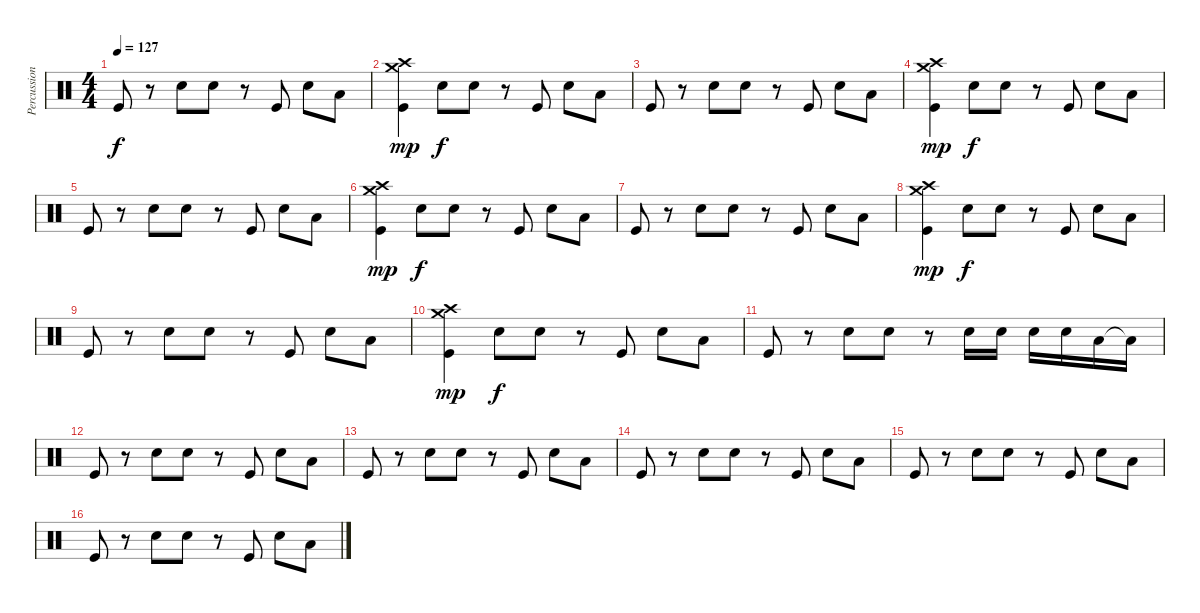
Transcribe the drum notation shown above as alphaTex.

\track ("Percussion" "Percussion") {instrument percussion}
\staff {score}
\articulation defaults
\ts (4 4)
\tempo 127
\clef neutral
\ks c "Kick (hit)".8{dy f}
r.8 "Snare (hit) 2".8 "Snare (hit) 2".8 r.8 "Kick (hit)".8 "Snare (hit) 2".8 "Low Floor Tom (hit)".8 |
("Crash medium (hit)" "Crash high (hit)" "Kick (hit)").4{dy mp} "Snare (hit) 2".8{dy f} "Snare (hit) 2".8 r.8 "Kick (hit)".8 "Snare (hit) 2".8 "Low Floor Tom (hit)".8 |
"Kick (hit)".8 r.8 "Snare (hit) 2".8 "Snare (hit) 2".8 r.8 "Kick (hit)".8 "Snare (hit) 2".8 "Low Floor Tom (hit)".8 |
("Crash medium (hit)" "Crash high (hit)" "Kick (hit)").4{dy mp} "Snare (hit) 2".8{dy f} "Snare (hit) 2".8 r.8 "Kick (hit)".8 "Snare (hit) 2".8 "Low Floor Tom (hit)".8 |
"Kick (hit)".8 r.8 "Snare (hit) 2".8 "Snare (hit) 2".8 r.8 "Kick (hit)".8 "Snare (hit) 2".8 "Low Floor Tom (hit)".8 |
("Crash medium (hit)" "Crash high (hit)" "Kick (hit)").4{dy mp} "Snare (hit) 2".8{dy f} "Snare (hit) 2".8 r.8 "Kick (hit)".8 "Snare (hit) 2".8 "Low Floor Tom (hit)".8 |
"Kick (hit)".8 r.8 "Snare (hit) 2".8 "Snare (hit) 2".8 r.8 "Kick (hit)".8 "Snare (hit) 2".8 "Low Floor Tom (hit)".8 |
("Crash medium (hit)" "Crash high (hit)" "Kick (hit)").4{dy mp} "Snare (hit) 2".8{dy f} "Snare (hit) 2".8 r.8 "Kick (hit)".8 "Snare (hit) 2".8 "Low Floor Tom (hit)".8 |
"Kick (hit)".8 r.8 "Snare (hit) 2".8 "Snare (hit) 2".8 r.8 "Kick (hit)".8 "Snare (hit) 2".8 "Low Floor Tom (hit)".8 |
("Crash medium (hit)" "Crash high (hit)" "Kick (hit)").4{dy mp} "Snare (hit) 2".8{dy f} "Snare (hit) 2".8 r.8 "Kick (hit)".8 "Snare (hit) 2".8 "Low Floor Tom (hit)".8 |
"Kick (hit)".8 r.8 "Snare (hit) 2".8 "Snare (hit) 2".8 r.8 "Snare (hit) 2".16 "Snare (hit) 2".16 "Snare (hit) 2".16 "Snare (hit) 2".16 "Low Floor Tom (hit)".16 "Low Floor Tom (hit)"{t}.16 |
"Kick (hit)".8 r.8 "Snare (hit) 2".8 "Snare (hit) 2".8 r.8 "Kick (hit)".8 "Snare (hit) 2".8 "Low Floor Tom (hit)".8 |
"Kick (hit)".8 r.8 "Snare (hit) 2".8 "Snare (hit) 2".8 r.8 "Kick (hit)".8 "Snare (hit) 2".8 "Low Floor Tom (hit)".8 |
"Kick (hit)".8 r.8 "Snare (hit) 2".8 "Snare (hit) 2".8 r.8 "Kick (hit)".8 "Snare (hit) 2".8 "Low Floor Tom (hit)".8 |
"Kick (hit)".8 r.8 "Snare (hit) 2".8 "Snare (hit) 2".8 r.8 "Kick (hit)".8 "Snare (hit) 2".8 "Low Floor Tom (hit)".8 |
"Kick (hit)".8 r.8 "Snare (hit) 2".8 "Snare (hit) 2".8 r.8 "Kick (hit)".8 "Snare (hit) 2".8 "Low Floor Tom (hit)".8
